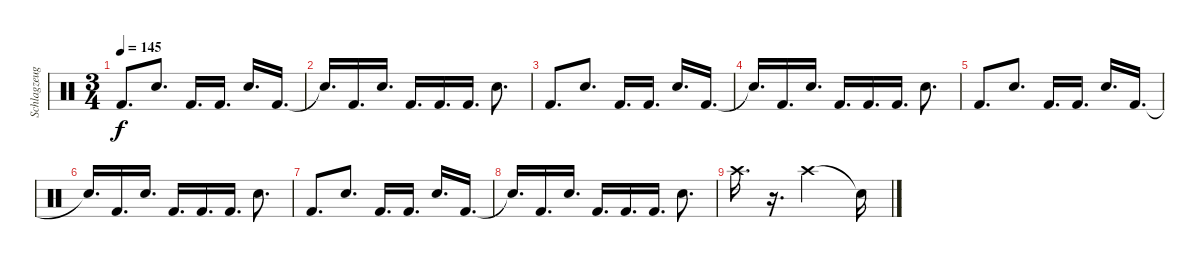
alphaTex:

\track ("Schlagzeug" "Schlagzeug") {instrument percussion}
\staff {score}
\articulation defaults
\ts (3 4)
\tempo 145
\clef neutral
\ks c "Kick (hit) 2".8{d dy f} "Snare (hit) 2".8{d} "Kick (hit) 2".16{d} "Kick (hit) 2".16{d} "Snare (hit) 2".16{d} "Kick (hit) 2".16{d}
|
"Snare (hit)"{t}.16{d} "Kick (hit) 2".16{d} "Snare (hit) 2".16{d} "Kick (hit) 2".16{d} "Kick (hit) 2".16{d} "Kick (hit) 2".16{d} "Snare (hit) 2".8{d} |
"Kick (hit) 2".8{d} "Snare (hit) 2".8{d} "Kick (hit) 2".16{d} "Kick (hit) 2".16{d} "Snare (hit) 2".16{d} "Kick (hit) 2".16{d} |
"Snare (hit)"{t}.16{d} "Kick (hit) 2".16{d} "Snare (hit) 2".16{d} "Kick (hit) 2".16{d} "Kick (hit) 2".16{d} "Kick (hit) 2".16{d} "Snare (hit) 2".8{d} |
"Kick (hit) 2".8{d} "Snare (hit) 2".8{d} "Kick (hit) 2".16{d} "Kick (hit) 2".16{d} "Snare (hit) 2".16{d} "Kick (hit) 2".16{d} |
"Snare (hit)"{t}.16{d} "Kick (hit) 2".16{d} "Snare (hit) 2".16{d} "Kick (hit) 2".16{d} "Kick (hit) 2".16{d} "Kick (hit) 2".16{d} "Snare (hit) 2".8{d} |
"Kick (hit) 2".8{d} "Snare (hit) 2".8{d} "Kick (hit) 2".16{d} "Kick (hit) 2".16{d} "Snare (hit) 2".16{d} "Kick (hit) 2".16{d} |
"Snare (hit)"{t}.16{d} "Kick (hit) 2".16{d} "Snare (hit) 2".16{d} "Kick (hit) 2".16{d} "Kick (hit) 2".16{d} "Kick (hit) 2".16{d} "Snare (hit) 2".8{d} |
"Crash high (hit)".16{d} r.16{d} "Crash high (hit)".2 "Snare (hit)"{t}.16
